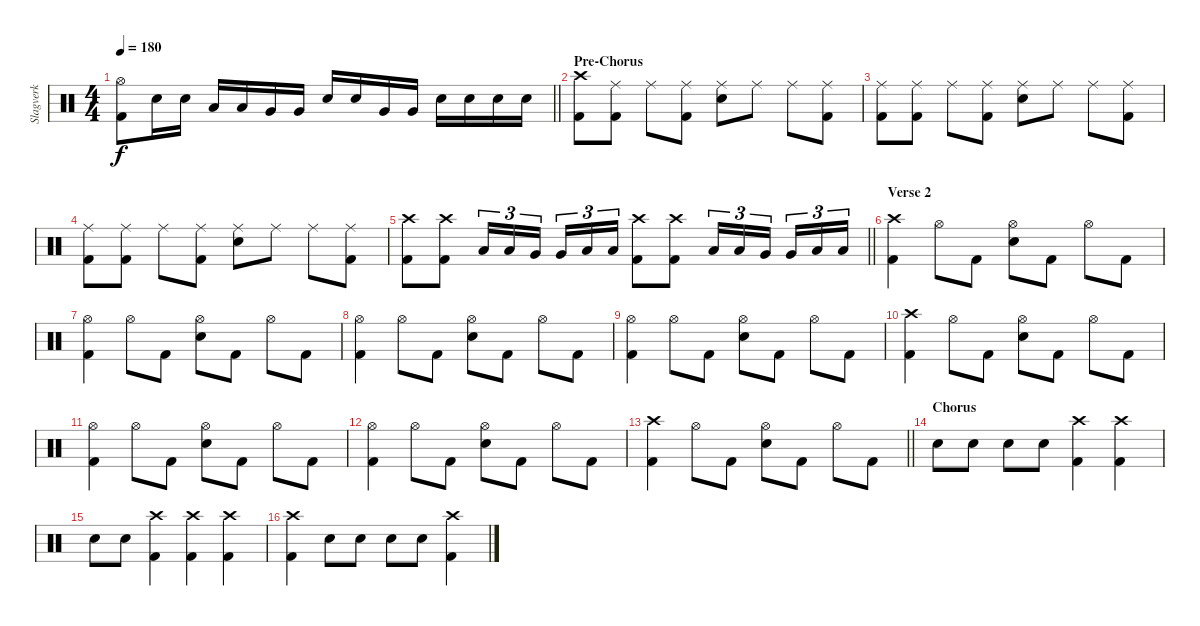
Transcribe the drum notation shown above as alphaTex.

\track ("Slagverk" "Slagverk") {instrument percussion}
\staff {score}
\articulation defaults
\ts (4 4)
\tempo 180
\clef neutral
\barLineRight lightlight
\ks c
("Hi-Hat (open)" "Kick (hit) 2").8{dy f} "Electric Snare (hit)".16 "Electric Snare (hit)".16 "Low Tom (hit)".16 "Low Tom (hit)".16 "Very Low Tom (hit)".16 "Very Low Tom (hit)".16 "Electric Snare (hit)".16 "Electric Snare (hit)".16 "Very Low Tom (hit)".16 "Very Low Tom (hit)".16 "Electric Snare (hit)".16 "Electric Snare (hit)".16 "Electric Snare (hit)".16 "Electric Snare (hit)".16 |
\section ("" "Pre-Chorus")
("Crash high (hit)" "Kick (hit) 2").8 ("Ride (middle)" "Kick (hit) 2").8 "Ride (middle)".8 ("Ride (middle)" "Kick (hit) 2").8 ("Ride (middle)" "Electric Snare (hit)").8 "Ride (middle)".8 "Ride (middle)".8 ("Ride (middle)" "Kick (hit) 2").8 |
("Ride (middle)" "Kick (hit) 2").8 ("Ride (middle)" "Kick (hit) 2").8 "Ride (middle)".8 ("Ride (middle)" "Kick (hit) 2").8 ("Ride (middle)" "Electric Snare (hit)").8 "Ride (middle)".8 "Ride (middle)".8 ("Ride (middle)" "Kick (hit) 2").8 |
("Ride (middle)" "Kick (hit) 2").8 ("Ride (middle)" "Kick (hit) 2").8 "Ride (middle)".8 ("Ride (middle)" "Kick (hit) 2").8 ("Ride (middle)" "Electric Snare (hit)").8 "Ride (middle)".8 "Ride (middle)".8 ("Ride (middle)" "Kick (hit) 2").8 |
\barLineRight lightlight
("Crash high (hit)" "Kick (hit) 2").8 ("Crash high (hit)" "Kick (hit) 2").8 "Low Tom (hit)".16{tu (3 2)} "Low Tom (hit)".16{tu (3 2)} "Very Low Tom (hit)".16{tu (3 2) beam splitsecondary} "Very Low Tom (hit)".16{tu (3 2)} "Low Floor Tom (hit)".16{tu (3 2)} "Low Floor Tom (hit)".16{tu (3 2)} ("Crash high (hit)" "Kick (hit) 2").8 ("Crash high (hit)" "Kick (hit) 2").8 "Low Tom (hit)".16{tu (3 2)} "Low Tom (hit)".16{tu (3 2)} "Very Low Tom (hit)".16{tu (3 2) beam splitsecondary} "Very Low Tom (hit)".16{tu (3 2)} "Low Floor Tom (hit)".16{tu (3 2)} "Low Floor Tom (hit)".16{tu (3 2)} |
\section ("" "Verse 2")
("Crash high (hit)" "Kick (hit) 2").4 "Hi-Hat (open)".8 "Kick (hit) 2".8 ("Hi-Hat (open)" "Electric Snare (hit)").8 "Kick (hit) 2".8 "Hi-Hat (open)".8 "Kick (hit) 2".8 |
("Hi-Hat (open)" "Kick (hit) 2").4 "Hi-Hat (open)".8 "Kick (hit) 2".8 ("Hi-Hat (open)" "Electric Snare (hit)").8 "Kick (hit) 2".8 "Hi-Hat (open)".8 "Kick (hit) 2".8 |
("Hi-Hat (open)" "Kick (hit) 2").4 "Hi-Hat (open)".8 "Kick (hit) 2".8 ("Hi-Hat (open)" "Electric Snare (hit)").8 "Kick (hit) 2".8 "Hi-Hat (open)".8 "Kick (hit) 2".8 |
("Hi-Hat (open)" "Kick (hit) 2").4 "Hi-Hat (open)".8 "Kick (hit) 2".8 ("Hi-Hat (open)" "Electric Snare (hit)").8 "Kick (hit) 2".8 "Hi-Hat (open)".8 "Kick (hit) 2".8 |
("Crash high (hit)" "Kick (hit) 2").4 "Hi-Hat (open)".8 "Kick (hit) 2".8 ("Hi-Hat (open)" "Electric Snare (hit)").8 "Kick (hit) 2".8 "Hi-Hat (open)".8 "Kick (hit) 2".8 |
("Hi-Hat (open)" "Kick (hit) 2").4 "Hi-Hat (open)".8 "Kick (hit) 2".8 ("Hi-Hat (open)" "Electric Snare (hit)").8 "Kick (hit) 2".8 "Hi-Hat (open)".8 "Kick (hit) 2".8 |
("Hi-Hat (open)" "Kick (hit) 2").4 "Hi-Hat (open)".8 "Kick (hit) 2".8 ("Hi-Hat (open)" "Electric Snare (hit)").8 "Kick (hit) 2".8 "Hi-Hat (open)".8 "Kick (hit) 2".8 |
\barLineRight lightlight
("Crash high (hit)" "Kick (hit) 2").4 "Hi-Hat (open)".8 "Kick (hit) 2".8 ("Hi-Hat (open)" "Electric Snare (hit)").8 "Kick (hit) 2".8 "Hi-Hat (open)".8 "Kick (hit) 2".8 |
\section ("" "Chorus")
"Electric Snare (hit)".8 "Electric Snare (hit)".8 "Electric Snare (hit)".8 "Electric Snare (hit)".8 ("Crash high (hit)" "Kick (hit) 2").4 ("Crash high (hit)" "Kick (hit) 2").4 |
"Electric Snare (hit)".8 "Electric Snare (hit)".8 ("Crash high (hit)" "Kick (hit) 2").4 ("Crash high (hit)" "Kick (hit) 2").4 ("Crash high (hit)" "Kick (hit) 2").4 |
("Crash high (hit)" "Kick (hit) 2").4 "Electric Snare (hit)".8 "Electric Snare (hit)".8 "Electric Snare (hit)".8 "Electric Snare (hit)".8 ("Crash high (hit)" "Kick (hit) 2").4
